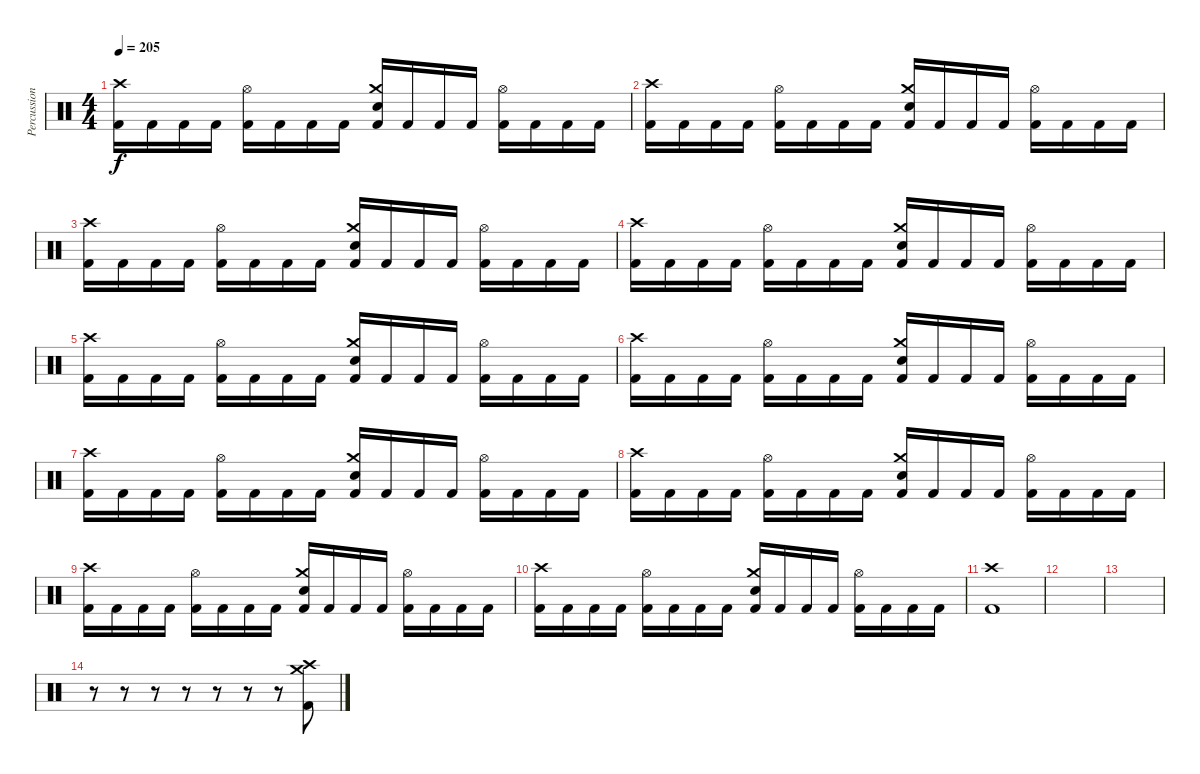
\track ("Percussion" "Percussion") {instrument percussion}
\staff {score}
\articulation defaults
\ts (4 4)
\tempo 205
\clef neutral
\ks c
("Crash high (hit)" "Kick (hit) 2").16{dy f} "Kick (hit) 2".16 "Kick (hit) 2".16 "Kick (hit) 2".16 ("Hi-Hat (open)" "Kick (hit) 2").16 "Kick (hit) 2".16 "Kick (hit) 2".16 "Kick (hit) 2".16 ("Crash medium (hit)" "Electric Snare (hit)" "Kick (hit) 2").16 "Kick (hit) 2".16 "Kick (hit) 2".16 "Kick (hit) 2".16 ("Hi-Hat (open)" "Kick (hit) 2").16 "Kick (hit) 2".16 "Kick (hit) 2".16 "Kick (hit) 2".16 |
("Crash high (hit)" "Kick (hit) 2").16 "Kick (hit) 2".16 "Kick (hit) 2".16 "Kick (hit) 2".16 ("Hi-Hat (open)" "Kick (hit) 2").16 "Kick (hit) 2".16 "Kick (hit) 2".16 "Kick (hit) 2".16 ("Crash medium (hit)" "Electric Snare (hit)" "Kick (hit) 2").16 "Kick (hit) 2".16 "Kick (hit) 2".16 "Kick (hit) 2".16 ("Hi-Hat (open)" "Kick (hit) 2").16 "Kick (hit) 2".16 "Kick (hit) 2".16 "Kick (hit) 2".16 |
("Crash high (hit)" "Kick (hit) 2").16 "Kick (hit) 2".16 "Kick (hit) 2".16 "Kick (hit) 2".16 ("Hi-Hat (open)" "Kick (hit) 2").16 "Kick (hit) 2".16 "Kick (hit) 2".16 "Kick (hit) 2".16 ("Crash medium (hit)" "Electric Snare (hit)" "Kick (hit) 2").16 "Kick (hit) 2".16 "Kick (hit) 2".16 "Kick (hit) 2".16 ("Hi-Hat (open)" "Kick (hit) 2").16 "Kick (hit) 2".16 "Kick (hit) 2".16 "Kick (hit) 2".16 |
("Crash high (hit)" "Kick (hit) 2").16 "Kick (hit) 2".16 "Kick (hit) 2".16 "Kick (hit) 2".16 ("Hi-Hat (open)" "Kick (hit) 2").16 "Kick (hit) 2".16 "Kick (hit) 2".16 "Kick (hit) 2".16 ("Crash medium (hit)" "Electric Snare (hit)" "Kick (hit) 2").16 "Kick (hit) 2".16 "Kick (hit) 2".16 "Kick (hit) 2".16 ("Hi-Hat (open)" "Kick (hit) 2").16 "Kick (hit) 2".16 "Kick (hit) 2".16 "Kick (hit) 2".16 |
("Crash high (hit)" "Kick (hit) 2").16 "Kick (hit) 2".16 "Kick (hit) 2".16 "Kick (hit) 2".16 ("Hi-Hat (open)" "Kick (hit) 2").16 "Kick (hit) 2".16 "Kick (hit) 2".16 "Kick (hit) 2".16 ("Crash medium (hit)" "Electric Snare (hit)" "Kick (hit) 2").16 "Kick (hit) 2".16 "Kick (hit) 2".16 "Kick (hit) 2".16 ("Hi-Hat (open)" "Kick (hit) 2").16 "Kick (hit) 2".16 "Kick (hit) 2".16 "Kick (hit) 2".16 |
("Crash high (hit)" "Kick (hit) 2").16 "Kick (hit) 2".16 "Kick (hit) 2".16 "Kick (hit) 2".16 ("Hi-Hat (open)" "Kick (hit) 2").16 "Kick (hit) 2".16 "Kick (hit) 2".16 "Kick (hit) 2".16 ("Crash medium (hit)" "Electric Snare (hit)" "Kick (hit) 2").16 "Kick (hit) 2".16 "Kick (hit) 2".16 "Kick (hit) 2".16 ("Hi-Hat (open)" "Kick (hit) 2").16 "Kick (hit) 2".16 "Kick (hit) 2".16 "Kick (hit) 2".16 |
("Crash high (hit)" "Kick (hit) 2").16 "Kick (hit) 2".16 "Kick (hit) 2".16 "Kick (hit) 2".16 ("Hi-Hat (open)" "Kick (hit) 2").16 "Kick (hit) 2".16 "Kick (hit) 2".16 "Kick (hit) 2".16 ("Crash medium (hit)" "Electric Snare (hit)" "Kick (hit) 2").16 "Kick (hit) 2".16 "Kick (hit) 2".16 "Kick (hit) 2".16 ("Hi-Hat (open)" "Kick (hit) 2").16 "Kick (hit) 2".16 "Kick (hit) 2".16 "Kick (hit) 2".16 |
("Crash high (hit)" "Kick (hit) 2").16 "Kick (hit) 2".16 "Kick (hit) 2".16 "Kick (hit) 2".16 ("Hi-Hat (open)" "Kick (hit) 2").16 "Kick (hit) 2".16 "Kick (hit) 2".16 "Kick (hit) 2".16 ("Crash medium (hit)" "Electric Snare (hit)" "Kick (hit) 2").16 "Kick (hit) 2".16 "Kick (hit) 2".16 "Kick (hit) 2".16 ("Hi-Hat (open)" "Kick (hit) 2").16 "Kick (hit) 2".16 "Kick (hit) 2".16 "Kick (hit) 2".16 |
("Crash high (hit)" "Kick (hit) 2").16 "Kick (hit) 2".16 "Kick (hit) 2".16 "Kick (hit) 2".16 ("Hi-Hat (open)" "Kick (hit) 2").16 "Kick (hit) 2".16 "Kick (hit) 2".16 "Kick (hit) 2".16 ("Crash medium (hit)" "Electric Snare (hit)" "Kick (hit) 2").16 "Kick (hit) 2".16 "Kick (hit) 2".16 "Kick (hit) 2".16 ("Hi-Hat (open)" "Kick (hit) 2").16 "Kick (hit) 2".16 "Kick (hit) 2".16 "Kick (hit) 2".16 |
("Crash high (hit)" "Kick (hit) 2").16 "Kick (hit) 2".16 "Kick (hit) 2".16 "Kick (hit) 2".16 ("Hi-Hat (open)" "Kick (hit) 2").16 "Kick (hit) 2".16 "Kick (hit) 2".16 "Kick (hit) 2".16 ("Crash medium (hit)" "Electric Snare (hit)" "Kick (hit) 2").16 "Kick (hit) 2".16 "Kick (hit) 2".16 "Kick (hit) 2".16 ("Hi-Hat (open)" "Kick (hit) 2").16 "Kick (hit) 2".16 "Kick (hit) 2".16 "Kick (hit) 2".16 |
("Crash high (hit)" "Kick (hit) 2").1 |
|
|
r.8 r.8 r.8 r.8 r.8 r.8 r.8 ("Crash high (hit)" "Crash medium (hit)" "Kick (hit) 2").8
